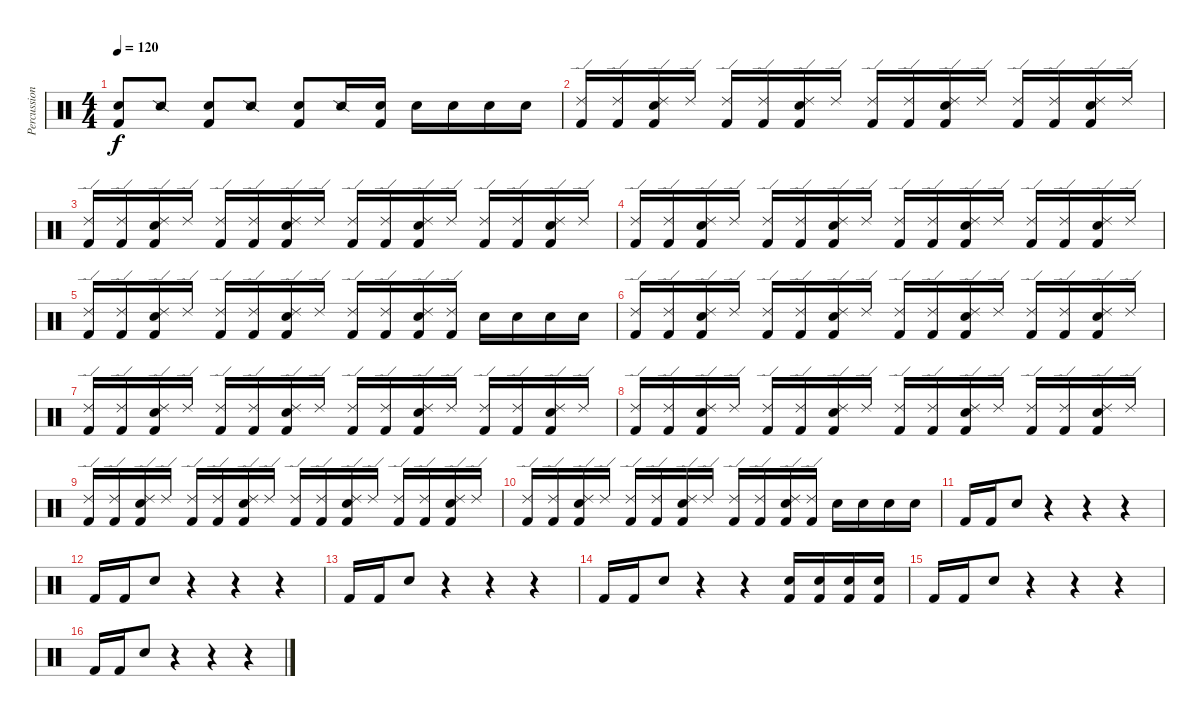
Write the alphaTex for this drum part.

\track ("Percussion" "Percussion") {instrument percussion}
\staff {score}
\articulation defaults
\ts (4 4)
\tempo 120
\clef neutral
\ks c
("Kick (hit) 2" "Snare (hit) 2").8{dy f} "Snare (side stick) 2".8 ("Kick (hit) 2" "Snare (hit) 2").8 "Snare (side stick) 2".8 ("Kick (hit) 2" "Snare (hit) 2").8 "Snare (side stick) 2".16 ("Kick (hit) 2" "Snare (hit) 2").16 "Snare (hit) 2".16 "Snare (hit) 2".16 "Snare (hit) 2".16 "Snare (hit) 2".16 |
("Kick (hit) 2" "Ride (edge) 2").16 ("Kick (hit) 2" "Ride (edge) 2").16 ("Kick (hit) 2" "Snare (hit) 2" "Ride (edge) 2").16 "Ride (edge) 2".16 ("Kick (hit) 2" "Ride (edge) 2").16 ("Kick (hit) 2" "Ride (edge) 2").16 ("Kick (hit) 2" "Snare (hit) 2" "Ride (edge) 2").16 "Ride (edge) 2".16 ("Kick (hit) 2" "Ride (edge) 2").16 ("Kick (hit) 2" "Ride (edge) 2").16 ("Kick (hit) 2" "Snare (hit) 2" "Ride (edge) 2").16 "Ride (edge) 2".16 ("Kick (hit) 2" "Ride (edge) 2").16 ("Kick (hit) 2" "Ride (edge) 2").16 ("Kick (hit) 2" "Snare (hit) 2" "Ride (edge) 2").16 "Ride (edge) 2".16 |
("Kick (hit) 2" "Ride (edge) 2").16 ("Kick (hit) 2" "Ride (edge) 2").16 ("Kick (hit) 2" "Snare (hit) 2" "Ride (edge) 2").16 "Ride (edge) 2".16 ("Kick (hit) 2" "Ride (edge) 2").16 ("Kick (hit) 2" "Ride (edge) 2").16 ("Kick (hit) 2" "Snare (hit) 2" "Ride (edge) 2").16 "Ride (edge) 2".16 ("Kick (hit) 2" "Ride (edge) 2").16 ("Kick (hit) 2" "Ride (edge) 2").16 ("Kick (hit) 2" "Snare (hit) 2" "Ride (edge) 2").16 "Ride (edge) 2".16 ("Kick (hit) 2" "Ride (edge) 2").16 ("Kick (hit) 2" "Ride (edge) 2").16 ("Kick (hit) 2" "Snare (hit) 2" "Ride (edge) 2").16 "Ride (edge) 2".16 |
("Kick (hit) 2" "Ride (edge) 2").16 ("Kick (hit) 2" "Ride (edge) 2").16 ("Kick (hit) 2" "Snare (hit) 2" "Ride (edge) 2").16 "Ride (edge) 2".16 ("Kick (hit) 2" "Ride (edge) 2").16 ("Kick (hit) 2" "Ride (edge) 2").16 ("Kick (hit) 2" "Snare (hit) 2" "Ride (edge) 2").16 "Ride (edge) 2".16 ("Kick (hit) 2" "Ride (edge) 2").16 ("Kick (hit) 2" "Ride (edge) 2").16 ("Kick (hit) 2" "Snare (hit) 2" "Ride (edge) 2").16 "Ride (edge) 2".16 ("Kick (hit) 2" "Ride (edge) 2").16 ("Kick (hit) 2" "Ride (edge) 2").16 ("Kick (hit) 2" "Snare (hit) 2" "Ride (edge) 2").16 "Ride (edge) 2".16 |
("Kick (hit) 2" "Ride (edge) 2").16 ("Kick (hit) 2" "Ride (edge) 2").16 ("Kick (hit) 2" "Snare (hit) 2" "Ride (edge) 2").16 "Ride (edge) 2".16 ("Kick (hit) 2" "Ride (edge) 2").16 ("Kick (hit) 2" "Ride (edge) 2").16 ("Kick (hit) 2" "Snare (hit) 2" "Ride (edge) 2").16 "Ride (edge) 2".16 ("Kick (hit) 2" "Ride (edge) 2").16 ("Kick (hit) 2" "Ride (edge) 2").16 ("Kick (hit) 2" "Snare (hit) 2" "Ride (edge) 2").16 ("Kick (hit) 2" "Ride (edge) 2").16 "Snare (hit) 2".16 "Snare (hit) 2".16 "Snare (hit) 2".16 "Snare (hit) 2".16 |
("Kick (hit) 2" "Ride (edge) 2").16 ("Kick (hit) 2" "Ride (edge) 2").16 ("Kick (hit) 2" "Snare (hit) 2" "Ride (edge) 2").16 "Ride (edge) 2".16 ("Kick (hit) 2" "Ride (edge) 2").16 ("Kick (hit) 2" "Ride (edge) 2").16 ("Kick (hit) 2" "Snare (hit) 2" "Ride (edge) 2").16 "Ride (edge) 2".16 ("Kick (hit) 2" "Ride (edge) 2").16 ("Kick (hit) 2" "Ride (edge) 2").16 ("Kick (hit) 2" "Snare (hit) 2" "Ride (edge) 2").16 "Ride (edge) 2".16 ("Kick (hit) 2" "Ride (edge) 2").16 ("Kick (hit) 2" "Ride (edge) 2").16 ("Kick (hit) 2" "Snare (hit) 2" "Ride (edge) 2").16 "Ride (edge) 2".16 |
("Kick (hit) 2" "Ride (edge) 2").16 ("Kick (hit) 2" "Ride (edge) 2").16 ("Kick (hit) 2" "Snare (hit) 2" "Ride (edge) 2").16 "Ride (edge) 2".16 ("Kick (hit) 2" "Ride (edge) 2").16 ("Kick (hit) 2" "Ride (edge) 2").16 ("Kick (hit) 2" "Snare (hit) 2" "Ride (edge) 2").16 "Ride (edge) 2".16 ("Kick (hit) 2" "Ride (edge) 2").16 ("Kick (hit) 2" "Ride (edge) 2").16 ("Kick (hit) 2" "Snare (hit) 2" "Ride (edge) 2").16 "Ride (edge) 2".16 ("Kick (hit) 2" "Ride (edge) 2").16 ("Kick (hit) 2" "Ride (edge) 2").16 ("Kick (hit) 2" "Snare (hit) 2" "Ride (edge) 2").16 "Ride (edge) 2".16 |
("Kick (hit) 2" "Ride (edge) 2").16 ("Kick (hit) 2" "Ride (edge) 2").16 ("Kick (hit) 2" "Snare (hit) 2" "Ride (edge) 2").16 "Ride (edge) 2".16 ("Kick (hit) 2" "Ride (edge) 2").16 ("Kick (hit) 2" "Ride (edge) 2").16 ("Kick (hit) 2" "Snare (hit) 2" "Ride (edge) 2").16 "Ride (edge) 2".16 ("Kick (hit) 2" "Ride (edge) 2").16 ("Kick (hit) 2" "Ride (edge) 2").16 ("Kick (hit) 2" "Snare (hit) 2" "Ride (edge) 2").16 "Ride (edge) 2".16 ("Kick (hit) 2" "Ride (edge) 2").16 ("Kick (hit) 2" "Ride (edge) 2").16 ("Kick (hit) 2" "Snare (hit) 2" "Ride (edge) 2").16 "Ride (edge) 2".16 |
("Kick (hit) 2" "Ride (edge) 2").16 ("Kick (hit) 2" "Ride (edge) 2").16 ("Kick (hit) 2" "Snare (hit) 2" "Ride (edge) 2").16 "Ride (edge) 2".16 ("Kick (hit) 2" "Ride (edge) 2").16 ("Kick (hit) 2" "Ride (edge) 2").16 ("Kick (hit) 2" "Snare (hit) 2" "Ride (edge) 2").16 "Ride (edge) 2".16 ("Kick (hit) 2" "Ride (edge) 2").16 ("Kick (hit) 2" "Ride (edge) 2").16 ("Kick (hit) 2" "Snare (hit) 2" "Ride (edge) 2").16 "Ride (edge) 2".16 ("Kick (hit) 2" "Ride (edge) 2").16 ("Kick (hit) 2" "Ride (edge) 2").16 ("Kick (hit) 2" "Snare (hit) 2" "Ride (edge) 2").16 "Ride (edge) 2".16 |
("Kick (hit) 2" "Ride (edge) 2").16 ("Kick (hit) 2" "Ride (edge) 2").16 ("Kick (hit) 2" "Snare (hit) 2" "Ride (edge) 2").16 "Ride (edge) 2".16 ("Kick (hit) 2" "Ride (edge) 2").16 ("Kick (hit) 2" "Ride (edge) 2").16 ("Kick (hit) 2" "Snare (hit) 2" "Ride (edge) 2").16 "Ride (edge) 2".16 ("Kick (hit) 2" "Ride (edge) 2").16 ("Kick (hit) 2" "Ride (edge) 2").16 ("Kick (hit) 2" "Snare (hit) 2" "Ride (edge) 2").16 ("Kick (hit) 2" "Ride (edge) 2").16 "Snare (hit) 2".16 "Snare (hit) 2".16 "Snare (hit) 2".16 "Snare (hit) 2".16 |
"Kick (hit) 2".16 "Kick (hit) 2".16 "Snare (hit) 2".8 r.4 r.4 r.4 |
"Kick (hit) 2".16 "Kick (hit) 2".16 "Snare (hit) 2".8 r.4 r.4 r.4 |
"Kick (hit) 2".16 "Kick (hit) 2".16 "Snare (hit) 2".8 r.4 r.4 r.4 |
"Kick (hit) 2".16 "Kick (hit) 2".16 "Snare (hit) 2".8 r.4 r.4 ("Kick (hit) 2" "Snare (hit) 2").16 ("Kick (hit) 2" "Snare (hit) 2").16 ("Kick (hit) 2" "Snare (hit) 2").16 ("Kick (hit) 2" "Snare (hit) 2").16 |
"Kick (hit) 2".16 "Kick (hit) 2".16 "Snare (hit) 2".8 r.4 r.4 r.4 |
"Kick (hit) 2".16 "Kick (hit) 2".16 "Snare (hit) 2".8 r.4 r.4 r.4
